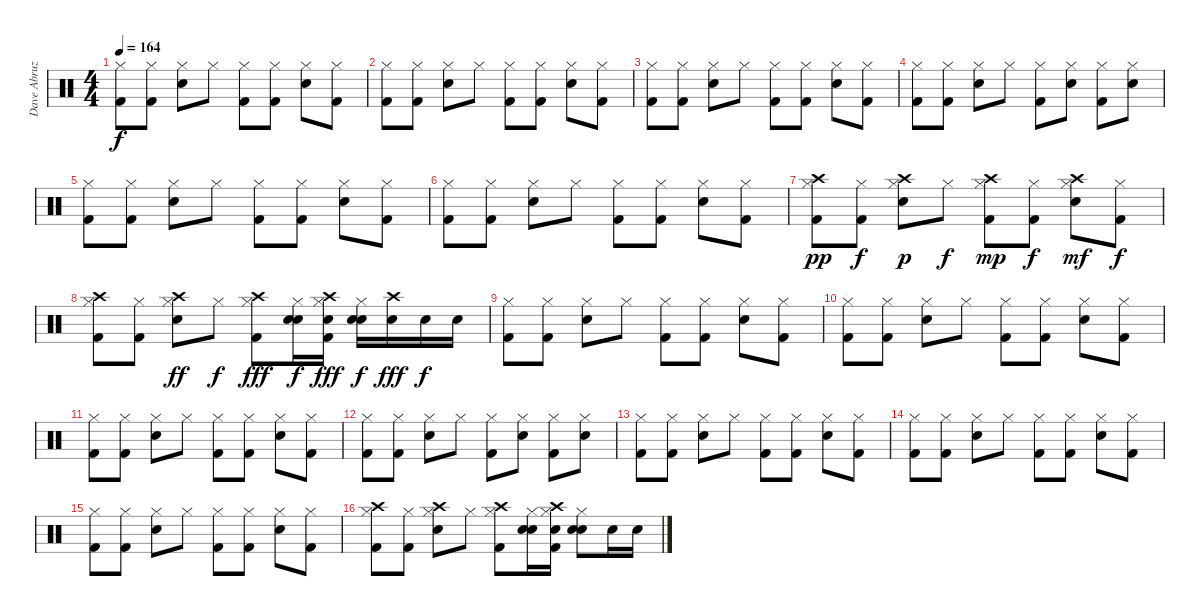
\track ("Dave Abruzzese" "Dave Abruz") {instrument percussion}
\staff {score}
\articulation defaults
\ts (4 4)
\tempo 164
\clef neutral
\ks c
("Kick (hit) 2" "Hi-Hat (closed)").8{dy f} ("Kick (hit) 2" "Hi-Hat (closed)").8 ("Snare (hit) 2" "Hi-Hat (closed)").8 "Hi-Hat (closed)".8 ("Kick (hit) 2" "Hi-Hat (closed)").8 ("Kick (hit) 2" "Hi-Hat (closed)").8 ("Snare (hit) 2" "Hi-Hat (closed)").8 ("Kick (hit) 2" "Hi-Hat (closed)").8 |
("Kick (hit) 2" "Hi-Hat (closed)").8 ("Kick (hit) 2" "Hi-Hat (closed)").8 ("Snare (hit) 2" "Hi-Hat (closed)").8 "Hi-Hat (closed)".8 ("Kick (hit) 2" "Hi-Hat (closed)").8 ("Kick (hit) 2" "Hi-Hat (closed)").8 ("Snare (hit) 2" "Hi-Hat (closed)").8 ("Kick (hit) 2" "Hi-Hat (closed)").8 |
("Kick (hit) 2" "Hi-Hat (closed)").8 ("Kick (hit) 2" "Hi-Hat (closed)").8 ("Snare (hit) 2" "Hi-Hat (closed)").8 "Hi-Hat (closed)".8 ("Kick (hit) 2" "Hi-Hat (closed)").8 ("Kick (hit) 2" "Hi-Hat (closed)").8 ("Snare (hit) 2" "Hi-Hat (closed)").8 ("Kick (hit) 2" "Hi-Hat (closed)").8 |
("Kick (hit) 2" "Hi-Hat (closed)").8 ("Kick (hit) 2" "Hi-Hat (closed)").8 ("Snare (hit) 2" "Hi-Hat (closed)").8 "Hi-Hat (closed)".8 ("Kick (hit) 2" "Hi-Hat (closed)").8 ("Snare (hit) 2" "Hi-Hat (closed)").8 ("Kick (hit) 2" "Hi-Hat (closed)").8 ("Snare (hit) 2" "Hi-Hat (closed)").8 |
("Kick (hit) 2" "Hi-Hat (closed)").8 ("Kick (hit) 2" "Hi-Hat (closed)").8 ("Snare (hit) 2" "Hi-Hat (closed)").8 "Hi-Hat (closed)".8 ("Kick (hit) 2" "Hi-Hat (closed)").8 ("Kick (hit) 2" "Hi-Hat (closed)").8 ("Snare (hit) 2" "Hi-Hat (closed)").8 ("Kick (hit) 2" "Hi-Hat (closed)").8 |
("Kick (hit) 2" "Hi-Hat (closed)").8 ("Kick (hit) 2" "Hi-Hat (closed)").8 ("Snare (hit) 2" "Hi-Hat (closed)").8 "Hi-Hat (closed)".8 ("Kick (hit) 2" "Hi-Hat (closed)").8 ("Kick (hit) 2" "Hi-Hat (closed)").8 ("Snare (hit) 2" "Hi-Hat (closed)").8 ("Kick (hit) 2" "Hi-Hat (closed)").8 |
("Crash high (hit)" "Kick (hit) 2" "Hi-Hat (closed)").8{dy pp} ("Kick (hit) 2" "Hi-Hat (closed)").8{dy f} ("Crash high (hit)" "Snare (hit) 2" "Hi-Hat (closed)").8{dy p} "Hi-Hat (closed)".8{dy f} ("Crash high (hit)" "Kick (hit) 2" "Hi-Hat (closed)").8{dy mp} ("Kick (hit) 2" "Hi-Hat (closed)").8{dy f} ("Crash high (hit)" "Snare (hit) 2" "Hi-Hat (closed)").8{dy mf} ("Kick (hit) 2" "Hi-Hat (closed)").8{dy f} |
("Crash high (hit)" "Kick (hit) 2" "Hi-Hat (closed)").8 ("Kick (hit) 2" "Hi-Hat (closed)").8 ("Crash high (hit)" "Snare (hit) 2" "Hi-Hat (closed)").8{dy ff} "Hi-Hat (closed)".8{dy f} ("Crash high (hit)" "Kick (hit) 2" "Hi-Hat (closed)").8{dy fff} ("Snare (hit) 2" "Snare (hit) 2" "Hi-Hat (closed)").16{dy f} ("Snare (hit) 2" "Crash high (hit)" "Kick (hit) 2" "Hi-Hat (closed)").16{dy fff} ("Snare (hit) 2" "Snare (hit) 2" "Hi-Hat (closed)").16{dy f} ("Snare (hit) 2" "Crash high (hit)").16{dy fff} "Snare (hit) 2".16{dy f} "Snare (hit) 2".16 |
("Kick (hit) 2" "Hi-Hat (closed)").8 ("Kick (hit) 2" "Hi-Hat (closed)").8 ("Snare (hit) 2" "Hi-Hat (closed)").8 "Hi-Hat (closed)".8 ("Kick (hit) 2" "Hi-Hat (closed)").8 ("Kick (hit) 2" "Hi-Hat (closed)").8 ("Snare (hit) 2" "Hi-Hat (closed)").8 ("Kick (hit) 2" "Hi-Hat (closed)").8 |
("Kick (hit) 2" "Hi-Hat (closed)").8 ("Kick (hit) 2" "Hi-Hat (closed)").8 ("Snare (hit) 2" "Hi-Hat (closed)").8 "Hi-Hat (closed)".8 ("Kick (hit) 2" "Hi-Hat (closed)").8 ("Kick (hit) 2" "Hi-Hat (closed)").8 ("Snare (hit) 2" "Hi-Hat (closed)").8 ("Kick (hit) 2" "Hi-Hat (closed)").8 |
("Kick (hit) 2" "Hi-Hat (closed)").8 ("Kick (hit) 2" "Hi-Hat (closed)").8 ("Snare (hit) 2" "Hi-Hat (closed)").8 "Hi-Hat (closed)".8 ("Kick (hit) 2" "Hi-Hat (closed)").8 ("Kick (hit) 2" "Hi-Hat (closed)").8 ("Snare (hit) 2" "Hi-Hat (closed)").8 ("Kick (hit) 2" "Hi-Hat (closed)").8 |
("Kick (hit) 2" "Hi-Hat (closed)").8 ("Kick (hit) 2" "Hi-Hat (closed)").8 ("Snare (hit) 2" "Hi-Hat (closed)").8 "Hi-Hat (closed)".8 ("Kick (hit) 2" "Hi-Hat (closed)").8 ("Snare (hit) 2" "Hi-Hat (closed)").8 ("Kick (hit) 2" "Hi-Hat (closed)").8 ("Snare (hit) 2" "Hi-Hat (closed)").8 |
("Kick (hit) 2" "Hi-Hat (closed)").8 ("Kick (hit) 2" "Hi-Hat (closed)").8 ("Snare (hit) 2" "Hi-Hat (closed)").8 "Hi-Hat (closed)".8 ("Kick (hit) 2" "Hi-Hat (closed)").8 ("Kick (hit) 2" "Hi-Hat (closed)").8 ("Snare (hit) 2" "Hi-Hat (closed)").8 ("Kick (hit) 2" "Hi-Hat (closed)").8 |
("Kick (hit) 2" "Hi-Hat (closed)").8 ("Kick (hit) 2" "Hi-Hat (closed)").8 ("Snare (hit) 2" "Hi-Hat (closed)").8 "Hi-Hat (closed)".8 ("Kick (hit) 2" "Hi-Hat (closed)").8 ("Kick (hit) 2" "Hi-Hat (closed)").8 ("Snare (hit) 2" "Hi-Hat (closed)").8 ("Kick (hit) 2" "Hi-Hat (closed)").8 |
("Kick (hit) 2" "Hi-Hat (closed)").8 ("Kick (hit) 2" "Hi-Hat (closed)").8 ("Snare (hit) 2" "Hi-Hat (closed)").8 "Hi-Hat (closed)".8 ("Kick (hit) 2" "Hi-Hat (closed)").8 ("Kick (hit) 2" "Hi-Hat (closed)").8 ("Snare (hit) 2" "Hi-Hat (closed)").8 ("Kick (hit) 2" "Hi-Hat (closed)").8 |
("Crash high (hit)" "Kick (hit) 2" "Hi-Hat (closed)").8 ("Kick (hit) 2" "Hi-Hat (closed)").8 ("Crash high (hit)" "Snare (hit) 2" "Hi-Hat (closed)").8 "Hi-Hat (closed)".8 ("Crash high (hit)" "Kick (hit) 2" "Hi-Hat (closed)").8 ("Snare (hit) 2" "Snare (hit) 2" "Hi-Hat (closed)").16 ("Snare (hit) 2" "Crash high (hit)" "Kick (hit) 2" "Hi-Hat (closed)").16 ("Snare (hit) 2" "Snare (hit) 2" "Hi-Hat (closed)").8 "Snare (hit) 2".16 "Snare (hit) 2".16
